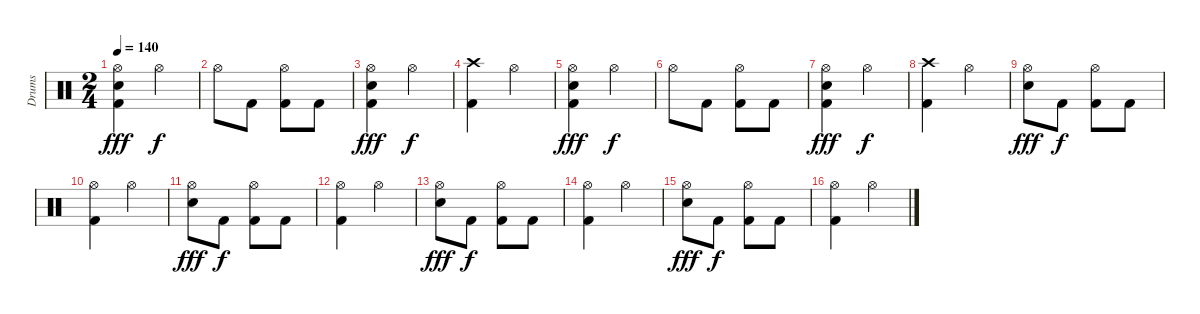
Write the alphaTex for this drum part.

\track ("Drums" "Drums") {instrument percussion}
\staff {score}
\articulation defaults
\ts (2 4)
\tempo 140
\clef neutral
\ks c
("Hi-Hat (open)" "Snare (hit) 2" "Kick (hit) 2").4{dy fff} "Hi-Hat (open)".4{dy f} |
"Hi-Hat (open)".8 "Kick (hit) 2".8 ("Hi-Hat (open)" "Kick (hit) 2").8 "Kick (hit) 2".8 |
("Hi-Hat (open)" "Snare (hit) 2" "Kick (hit) 2").4{dy fff} "Hi-Hat (open)".4{dy f} |
("Crash high (hit)" "Kick (hit) 2").4 "Hi-Hat (open)".4 |
("Hi-Hat (open)" "Snare (hit) 2" "Kick (hit) 2").4{dy fff} "Hi-Hat (open)".4{dy f} |
"Hi-Hat (open)".8 "Kick (hit) 2".8 ("Hi-Hat (open)" "Kick (hit) 2").8 "Kick (hit) 2".8 |
("Hi-Hat (open)" "Snare (hit) 2" "Kick (hit) 2").4{dy fff} "Hi-Hat (open)".4{dy f} |
("Crash high (hit)" "Kick (hit) 2").4 "Hi-Hat (open)".4 |
("Hi-Hat (open)" "Snare (hit) 2").8{dy fff} "Kick (hit) 2".8{dy f} ("Hi-Hat (open)" "Kick (hit) 2").8 "Kick (hit) 2".8 |
("Hi-Hat (open)" "Kick (hit) 2").4 "Hi-Hat (open)".4 |
("Hi-Hat (open)" "Snare (hit) 2").8{dy fff} "Kick (hit) 2".8{dy f} ("Hi-Hat (open)" "Kick (hit) 2").8 "Kick (hit) 2".8 |
("Hi-Hat (open)" "Kick (hit) 2").4 "Hi-Hat (open)".4 |
("Hi-Hat (open)" "Snare (hit) 2").8{dy fff} "Kick (hit) 2".8{dy f} ("Hi-Hat (open)" "Kick (hit) 2").8 "Kick (hit) 2".8 |
("Hi-Hat (open)" "Kick (hit) 2").4 "Hi-Hat (open)".4 |
("Hi-Hat (open)" "Snare (hit) 2").8{dy fff} "Kick (hit) 2".8{dy f} ("Hi-Hat (open)" "Kick (hit) 2").8 "Kick (hit) 2".8 |
("Hi-Hat (open)" "Kick (hit) 2").4 "Hi-Hat (open)".4
